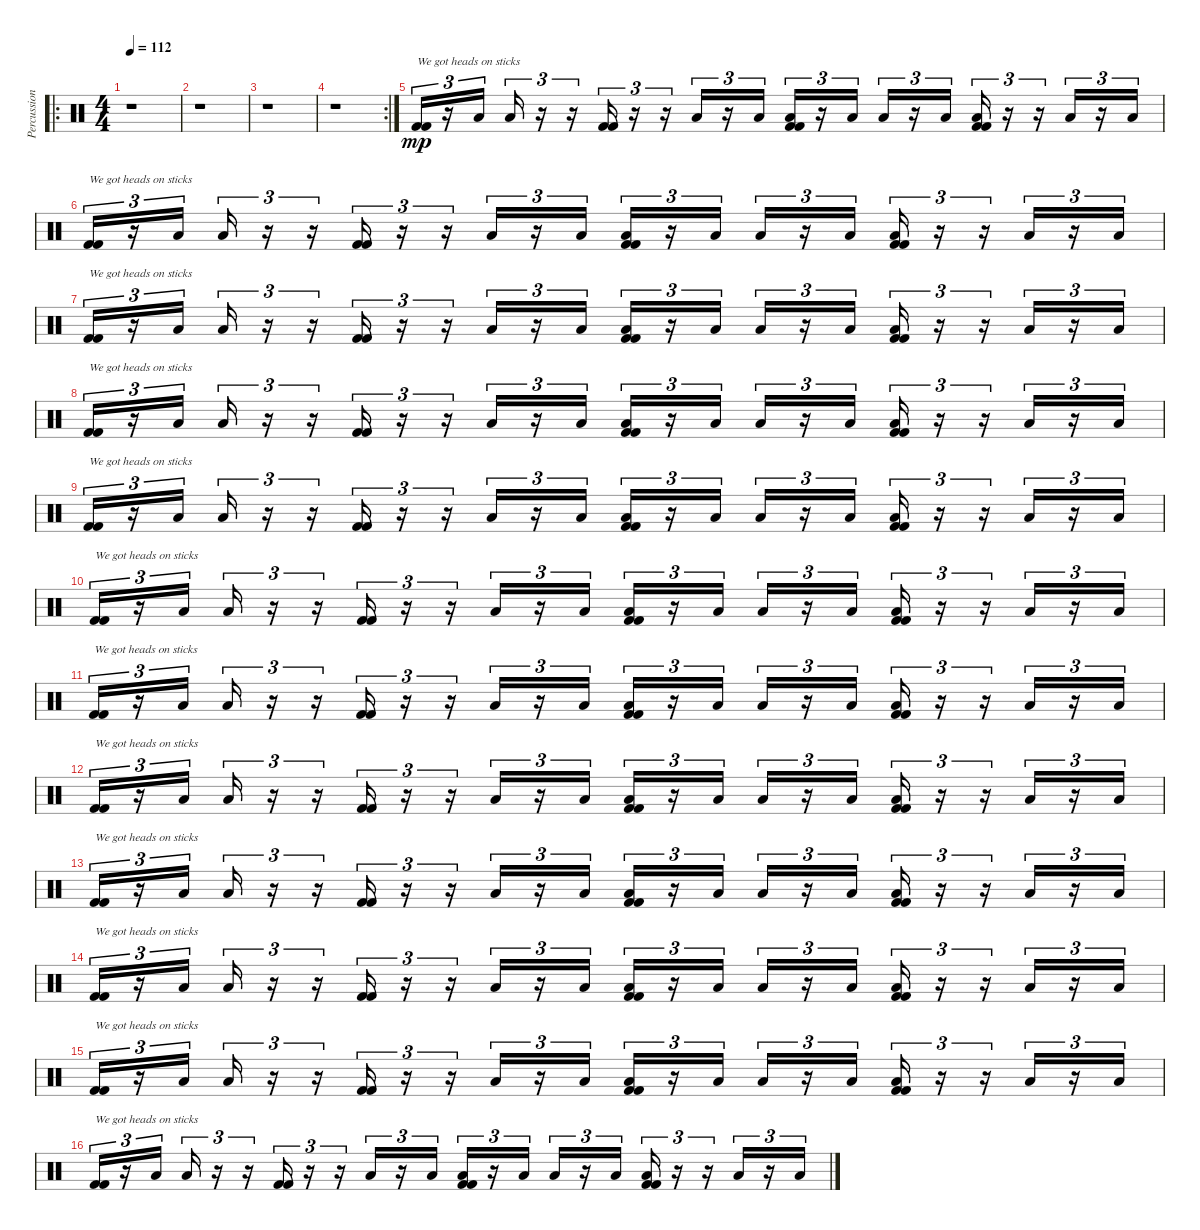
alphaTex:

\track ("Percussion" "Percussion") {instrument percussion}
\staff {score}
\articulation defaults
\ro
\ts (4 4)
\tempo 112
\clef neutral
\ks c
r.1{dy f} |
r.1 |
r.1 |
\rc 2
r.1 |
("Kick (hit) 2" "Kick (hit) 2").16{tu (3 2) txt "We got heads on sticks" dy mp} r.16{tu (3 2)} "Low Floor Tom (hit)".16{tu (3 2)} "Low Floor Tom (hit)".16{tu (3 2)} r.16{tu (3 2)} r.16{tu (3 2)} ("Kick (hit) 2" "Kick (hit) 2").16{tu (3 2)} r.16{tu (3 2)} r.16{tu (3 2)} "Low Floor Tom (hit)".16{tu (3 2)} r.16{tu (3 2)} "Low Floor Tom (hit)".16{tu (3 2)} ("Kick (hit) 2" "Kick (hit) 2" "Low Floor Tom (hit)").16{tu (3 2)} r.16{tu (3 2)} "Low Floor Tom (hit)".16{tu (3 2)} "Low Floor Tom (hit)".16{tu (3 2)} r.16{tu (3 2)} "Low Floor Tom (hit)".16{tu (3 2)} ("Kick (hit) 2" "Kick (hit) 2" "Low Floor Tom (hit)").16{tu (3 2)} r.16{tu (3 2)} r.16{tu (3 2)} "Low Floor Tom (hit)".16{tu (3 2)} r.16{tu (3 2)} "Low Floor Tom (hit)".16{tu (3 2)} |
("Kick (hit) 2" "Kick (hit) 2").16{tu (3 2) txt "We got heads on sticks"} r.16{tu (3 2)} "Low Floor Tom (hit)".16{tu (3 2)} "Low Floor Tom (hit)".16{tu (3 2)} r.16{tu (3 2)} r.16{tu (3 2)} ("Kick (hit) 2" "Kick (hit) 2").16{tu (3 2)} r.16{tu (3 2)} r.16{tu (3 2)} "Low Floor Tom (hit)".16{tu (3 2)} r.16{tu (3 2)} "Low Floor Tom (hit)".16{tu (3 2)} ("Kick (hit) 2" "Kick (hit) 2" "Low Floor Tom (hit)").16{tu (3 2)} r.16{tu (3 2)} "Low Floor Tom (hit)".16{tu (3 2)} "Low Floor Tom (hit)".16{tu (3 2)} r.16{tu (3 2)} "Low Floor Tom (hit)".16{tu (3 2)} ("Kick (hit) 2" "Kick (hit) 2" "Low Floor Tom (hit)").16{tu (3 2)} r.16{tu (3 2)} r.16{tu (3 2)} "Low Floor Tom (hit)".16{tu (3 2)} r.16{tu (3 2)} "Low Floor Tom (hit)".16{tu (3 2)} |
("Kick (hit) 2" "Kick (hit) 2").16{tu (3 2) txt "We got heads on sticks"} r.16{tu (3 2)} "Low Floor Tom (hit)".16{tu (3 2)} "Low Floor Tom (hit)".16{tu (3 2)} r.16{tu (3 2)} r.16{tu (3 2)} ("Kick (hit) 2" "Kick (hit) 2").16{tu (3 2)} r.16{tu (3 2)} r.16{tu (3 2)} "Low Floor Tom (hit)".16{tu (3 2)} r.16{tu (3 2)} "Low Floor Tom (hit)".16{tu (3 2)} ("Kick (hit) 2" "Kick (hit) 2" "Low Floor Tom (hit)").16{tu (3 2)} r.16{tu (3 2)} "Low Floor Tom (hit)".16{tu (3 2)} "Low Floor Tom (hit)".16{tu (3 2)} r.16{tu (3 2)} "Low Floor Tom (hit)".16{tu (3 2)} ("Kick (hit) 2" "Kick (hit) 2" "Low Floor Tom (hit)").16{tu (3 2)} r.16{tu (3 2)} r.16{tu (3 2)} "Low Floor Tom (hit)".16{tu (3 2)} r.16{tu (3 2)} "Low Floor Tom (hit)".16{tu (3 2)} |
("Kick (hit) 2" "Kick (hit) 2").16{tu (3 2) txt "We got heads on sticks"} r.16{tu (3 2)} "Low Floor Tom (hit)".16{tu (3 2)} "Low Floor Tom (hit)".16{tu (3 2)} r.16{tu (3 2)} r.16{tu (3 2)} ("Kick (hit) 2" "Kick (hit) 2").16{tu (3 2)} r.16{tu (3 2)} r.16{tu (3 2)} "Low Floor Tom (hit)".16{tu (3 2)} r.16{tu (3 2)} "Low Floor Tom (hit)".16{tu (3 2)} ("Kick (hit) 2" "Kick (hit) 2" "Low Floor Tom (hit)").16{tu (3 2)} r.16{tu (3 2)} "Low Floor Tom (hit)".16{tu (3 2)} "Low Floor Tom (hit)".16{tu (3 2)} r.16{tu (3 2)} "Low Floor Tom (hit)".16{tu (3 2)} ("Kick (hit) 2" "Kick (hit) 2" "Low Floor Tom (hit)").16{tu (3 2)} r.16{tu (3 2)} r.16{tu (3 2)} "Low Floor Tom (hit)".16{tu (3 2)} r.16{tu (3 2)} "Low Floor Tom (hit)".16{tu (3 2)} |
("Kick (hit) 2" "Kick (hit) 2").16{tu (3 2) txt "We got heads on sticks"} r.16{tu (3 2)} "Low Floor Tom (hit)".16{tu (3 2)} "Low Floor Tom (hit)".16{tu (3 2)} r.16{tu (3 2)} r.16{tu (3 2)} ("Kick (hit) 2" "Kick (hit) 2").16{tu (3 2)} r.16{tu (3 2)} r.16{tu (3 2)} "Low Floor Tom (hit)".16{tu (3 2)} r.16{tu (3 2)} "Low Floor Tom (hit)".16{tu (3 2)} ("Kick (hit) 2" "Kick (hit) 2" "Low Floor Tom (hit)").16{tu (3 2)} r.16{tu (3 2)} "Low Floor Tom (hit)".16{tu (3 2)} "Low Floor Tom (hit)".16{tu (3 2)} r.16{tu (3 2)} "Low Floor Tom (hit)".16{tu (3 2)} ("Kick (hit) 2" "Kick (hit) 2" "Low Floor Tom (hit)").16{tu (3 2)} r.16{tu (3 2)} r.16{tu (3 2)} "Low Floor Tom (hit)".16{tu (3 2)} r.16{tu (3 2)} "Low Floor Tom (hit)".16{tu (3 2)} |
("Kick (hit) 2" "Kick (hit) 2").16{tu (3 2) txt "We got heads on sticks"} r.16{tu (3 2)} "Low Floor Tom (hit)".16{tu (3 2)} "Low Floor Tom (hit)".16{tu (3 2)} r.16{tu (3 2)} r.16{tu (3 2)} ("Kick (hit) 2" "Kick (hit) 2").16{tu (3 2)} r.16{tu (3 2)} r.16{tu (3 2)} "Low Floor Tom (hit)".16{tu (3 2)} r.16{tu (3 2)} "Low Floor Tom (hit)".16{tu (3 2)} ("Kick (hit) 2" "Kick (hit) 2" "Low Floor Tom (hit)").16{tu (3 2)} r.16{tu (3 2)} "Low Floor Tom (hit)".16{tu (3 2)} "Low Floor Tom (hit)".16{tu (3 2)} r.16{tu (3 2)} "Low Floor Tom (hit)".16{tu (3 2)} ("Kick (hit) 2" "Kick (hit) 2" "Low Floor Tom (hit)").16{tu (3 2)} r.16{tu (3 2)} r.16{tu (3 2)} "Low Floor Tom (hit)".16{tu (3 2)} r.16{tu (3 2)} "Low Floor Tom (hit)".16{tu (3 2)} |
("Kick (hit) 2" "Kick (hit) 2").16{tu (3 2) txt "We got heads on sticks"} r.16{tu (3 2)} "Low Floor Tom (hit)".16{tu (3 2)} "Low Floor Tom (hit)".16{tu (3 2)} r.16{tu (3 2)} r.16{tu (3 2)} ("Kick (hit) 2" "Kick (hit) 2").16{tu (3 2)} r.16{tu (3 2)} r.16{tu (3 2)} "Low Floor Tom (hit)".16{tu (3 2)} r.16{tu (3 2)} "Low Floor Tom (hit)".16{tu (3 2)} ("Kick (hit) 2" "Kick (hit) 2" "Low Floor Tom (hit)").16{tu (3 2)} r.16{tu (3 2)} "Low Floor Tom (hit)".16{tu (3 2)} "Low Floor Tom (hit)".16{tu (3 2)} r.16{tu (3 2)} "Low Floor Tom (hit)".16{tu (3 2)} ("Kick (hit) 2" "Kick (hit) 2" "Low Floor Tom (hit)").16{tu (3 2)} r.16{tu (3 2)} r.16{tu (3 2)} "Low Floor Tom (hit)".16{tu (3 2)} r.16{tu (3 2)} "Low Floor Tom (hit)".16{tu (3 2)} |
("Kick (hit) 2" "Kick (hit) 2").16{tu (3 2) txt "We got heads on sticks"} r.16{tu (3 2)} "Low Floor Tom (hit)".16{tu (3 2)} "Low Floor Tom (hit)".16{tu (3 2)} r.16{tu (3 2)} r.16{tu (3 2)} ("Kick (hit) 2" "Kick (hit) 2").16{tu (3 2)} r.16{tu (3 2)} r.16{tu (3 2)} "Low Floor Tom (hit)".16{tu (3 2)} r.16{tu (3 2)} "Low Floor Tom (hit)".16{tu (3 2)} ("Kick (hit) 2" "Kick (hit) 2" "Low Floor Tom (hit)").16{tu (3 2)} r.16{tu (3 2)} "Low Floor Tom (hit)".16{tu (3 2)} "Low Floor Tom (hit)".16{tu (3 2)} r.16{tu (3 2)} "Low Floor Tom (hit)".16{tu (3 2)} ("Kick (hit) 2" "Kick (hit) 2" "Low Floor Tom (hit)").16{tu (3 2)} r.16{tu (3 2)} r.16{tu (3 2)} "Low Floor Tom (hit)".16{tu (3 2)} r.16{tu (3 2)} "Low Floor Tom (hit)".16{tu (3 2)} |
("Kick (hit) 2" "Kick (hit) 2").16{tu (3 2) txt "We got heads on sticks"} r.16{tu (3 2)} "Low Floor Tom (hit)".16{tu (3 2)} "Low Floor Tom (hit)".16{tu (3 2)} r.16{tu (3 2)} r.16{tu (3 2)} ("Kick (hit) 2" "Kick (hit) 2").16{tu (3 2)} r.16{tu (3 2)} r.16{tu (3 2)} "Low Floor Tom (hit)".16{tu (3 2)} r.16{tu (3 2)} "Low Floor Tom (hit)".16{tu (3 2)} ("Kick (hit) 2" "Kick (hit) 2" "Low Floor Tom (hit)").16{tu (3 2)} r.16{tu (3 2)} "Low Floor Tom (hit)".16{tu (3 2)} "Low Floor Tom (hit)".16{tu (3 2)} r.16{tu (3 2)} "Low Floor Tom (hit)".16{tu (3 2)} ("Kick (hit) 2" "Kick (hit) 2" "Low Floor Tom (hit)").16{tu (3 2)} r.16{tu (3 2)} r.16{tu (3 2)} "Low Floor Tom (hit)".16{tu (3 2)} r.16{tu (3 2)} "Low Floor Tom (hit)".16{tu (3 2)} |
("Kick (hit) 2" "Kick (hit) 2").16{tu (3 2) txt "We got heads on sticks"} r.16{tu (3 2)} "Low Floor Tom (hit)".16{tu (3 2)} "Low Floor Tom (hit)".16{tu (3 2)} r.16{tu (3 2)} r.16{tu (3 2)} ("Kick (hit) 2" "Kick (hit) 2").16{tu (3 2)} r.16{tu (3 2)} r.16{tu (3 2)} "Low Floor Tom (hit)".16{tu (3 2)} r.16{tu (3 2)} "Low Floor Tom (hit)".16{tu (3 2)} ("Kick (hit) 2" "Kick (hit) 2" "Low Floor Tom (hit)").16{tu (3 2)} r.16{tu (3 2)} "Low Floor Tom (hit)".16{tu (3 2)} "Low Floor Tom (hit)".16{tu (3 2)} r.16{tu (3 2)} "Low Floor Tom (hit)".16{tu (3 2)} ("Kick (hit) 2" "Kick (hit) 2" "Low Floor Tom (hit)").16{tu (3 2)} r.16{tu (3 2)} r.16{tu (3 2)} "Low Floor Tom (hit)".16{tu (3 2)} r.16{tu (3 2)} "Low Floor Tom (hit)".16{tu (3 2)} |
("Kick (hit) 2" "Kick (hit) 2").16{tu (3 2) txt "We got heads on sticks"} r.16{tu (3 2)} "Low Floor Tom (hit)".16{tu (3 2)} "Low Floor Tom (hit)".16{tu (3 2)} r.16{tu (3 2)} r.16{tu (3 2)} ("Kick (hit) 2" "Kick (hit) 2").16{tu (3 2)} r.16{tu (3 2)} r.16{tu (3 2)} "Low Floor Tom (hit)".16{tu (3 2)} r.16{tu (3 2)} "Low Floor Tom (hit)".16{tu (3 2)} ("Kick (hit) 2" "Kick (hit) 2" "Low Floor Tom (hit)").16{tu (3 2)} r.16{tu (3 2)} "Low Floor Tom (hit)".16{tu (3 2)} "Low Floor Tom (hit)".16{tu (3 2)} r.16{tu (3 2)} "Low Floor Tom (hit)".16{tu (3 2)} ("Kick (hit) 2" "Kick (hit) 2" "Low Floor Tom (hit)").16{tu (3 2)} r.16{tu (3 2)} r.16{tu (3 2)} "Low Floor Tom (hit)".16{tu (3 2)} r.16{tu (3 2)} "Low Floor Tom (hit)".16{tu (3 2)} |
("Kick (hit) 2" "Kick (hit) 2").16{tu (3 2) txt "We got heads on sticks"} r.16{tu (3 2)} "Low Floor Tom (hit)".16{tu (3 2)} "Low Floor Tom (hit)".16{tu (3 2)} r.16{tu (3 2)} r.16{tu (3 2)} ("Kick (hit) 2" "Kick (hit) 2").16{tu (3 2)} r.16{tu (3 2)} r.16{tu (3 2)} "Low Floor Tom (hit)".16{tu (3 2)} r.16{tu (3 2)} "Low Floor Tom (hit)".16{tu (3 2)} ("Kick (hit) 2" "Kick (hit) 2" "Low Floor Tom (hit)").16{tu (3 2)} r.16{tu (3 2)} "Low Floor Tom (hit)".16{tu (3 2)} "Low Floor Tom (hit)".16{tu (3 2)} r.16{tu (3 2)} "Low Floor Tom (hit)".16{tu (3 2)} ("Kick (hit) 2" "Kick (hit) 2" "Low Floor Tom (hit)").16{tu (3 2)} r.16{tu (3 2)} r.16{tu (3 2)} "Low Floor Tom (hit)".16{tu (3 2)} r.16{tu (3 2)} "Low Floor Tom (hit)".16{tu (3 2)}
